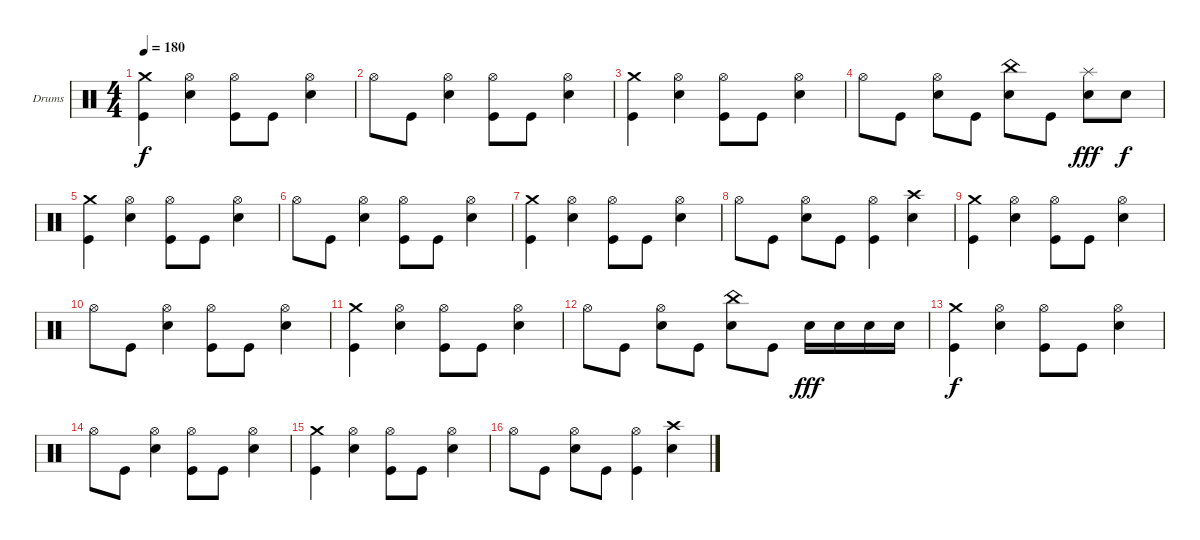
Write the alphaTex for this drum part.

\defaultSystemsLayout 4
\bracketExtendMode groupsimilarinstruments
\firstSystemTrackNameOrientation horizontal
\otherSystemsTrackNameOrientation horizontal
\track ("Барабаны" "Drums") {instrument percussion}
\staff {score}
\articulation defaults
\ts (4 4)
\tempo 180
\clef neutral
\ks c
("Crash medium (hit)" "Kick (hit)").4{dy f} ("Hi-Hat (open)" "Snare (hit) 2").4 ("Hi-Hat (open)" "Kick (hit)").8 "Kick (hit)".8 ("Hi-Hat (open)" "Snare (hit) 2").4 |
"Hi-Hat (open)".8 "Kick (hit)".8 ("Hi-Hat (open)" "Snare (hit) 2").4 ("Hi-Hat (open)" "Kick (hit)").8 "Kick (hit)".8 ("Hi-Hat (open)" "Snare (hit) 2").4 |
("Crash medium (hit)" "Kick (hit)").4 ("Hi-Hat (open)" "Snare (hit) 2").4 ("Hi-Hat (open)" "Kick (hit)").8 "Kick (hit)".8 ("Hi-Hat (open)" "Snare (hit) 2").4 |
"Hi-Hat (open)".8 "Kick (hit)".8 ("Hi-Hat (open)" "Snare (hit) 2").8 "Kick (hit)".8 ("China (hit)" "Snare (hit) 2").8 "Kick (hit)".8 ("Splash (hit)" "Snare (hit) 2").8{dy fff} "Snare (hit) 2".8{dy f} |
("Crash medium (hit)" "Kick (hit)").4 ("Hi-Hat (open)" "Snare (hit) 2").4 ("Hi-Hat (open)" "Kick (hit)").8 "Kick (hit)".8 ("Hi-Hat (open)" "Snare (hit) 2").4 |
"Hi-Hat (open)".8 "Kick (hit)".8 ("Hi-Hat (open)" "Snare (hit) 2").4 ("Hi-Hat (open)" "Kick (hit)").8 "Kick (hit)".8 ("Hi-Hat (open)" "Snare (hit) 2").4 |
("Crash medium (hit)" "Kick (hit)").4 ("Hi-Hat (open)" "Snare (hit) 2").4 ("Hi-Hat (open)" "Kick (hit)").8 "Kick (hit)".8 ("Hi-Hat (open)" "Snare (hit) 2").4 |
"Hi-Hat (open)".8 "Kick (hit)".8 ("Hi-Hat (open)" "Snare (hit) 2").8 "Kick (hit)".8 ("Hi-Hat (open)" "Kick (hit)").4 ("Crash high (hit)" "Snare (hit) 2").4 |
("Crash medium (hit)" "Kick (hit)").4 ("Hi-Hat (open)" "Snare (hit) 2").4 ("Hi-Hat (open)" "Kick (hit)").8 "Kick (hit)".8 ("Hi-Hat (open)" "Snare (hit) 2").4 |
"Hi-Hat (open)".8 "Kick (hit)".8 ("Hi-Hat (open)" "Snare (hit) 2").4 ("Hi-Hat (open)" "Kick (hit)").8 "Kick (hit)".8 ("Hi-Hat (open)" "Snare (hit) 2").4 |
("Crash medium (hit)" "Kick (hit)").4 ("Hi-Hat (open)" "Snare (hit) 2").4 ("Hi-Hat (open)" "Kick (hit)").8 "Kick (hit)".8 ("Hi-Hat (open)" "Snare (hit) 2").4 |
"Hi-Hat (open)".8 "Kick (hit)".8 ("Hi-Hat (open)" "Snare (hit) 2").8 "Kick (hit)".8 ("China (hit)" "Snare (hit) 2").8 "Kick (hit)".8 "Snare (hit) 2".16{dy fff} "Snare (hit) 2".16 "Snare (hit) 2".16 "Snare (hit) 2".16 |
("Crash medium (hit)" "Kick (hit)").4{dy f} ("Hi-Hat (open)" "Snare (hit) 2").4 ("Hi-Hat (open)" "Kick (hit)").8 "Kick (hit)".8 ("Hi-Hat (open)" "Snare (hit) 2").4 |
"Hi-Hat (open)".8 "Kick (hit)".8 ("Hi-Hat (open)" "Snare (hit) 2").4 ("Hi-Hat (open)" "Kick (hit)").8 "Kick (hit)".8 ("Hi-Hat (open)" "Snare (hit) 2").4 |
("Crash medium (hit)" "Kick (hit)").4 ("Hi-Hat (open)" "Snare (hit) 2").4 ("Hi-Hat (open)" "Kick (hit)").8 "Kick (hit)".8 ("Hi-Hat (open)" "Snare (hit) 2").4 |
"Hi-Hat (open)".8 "Kick (hit)".8 ("Hi-Hat (open)" "Snare (hit) 2").8 "Kick (hit)".8 ("Hi-Hat (open)" "Kick (hit)").4 ("Crash high (hit)" "Snare (hit) 2").4
